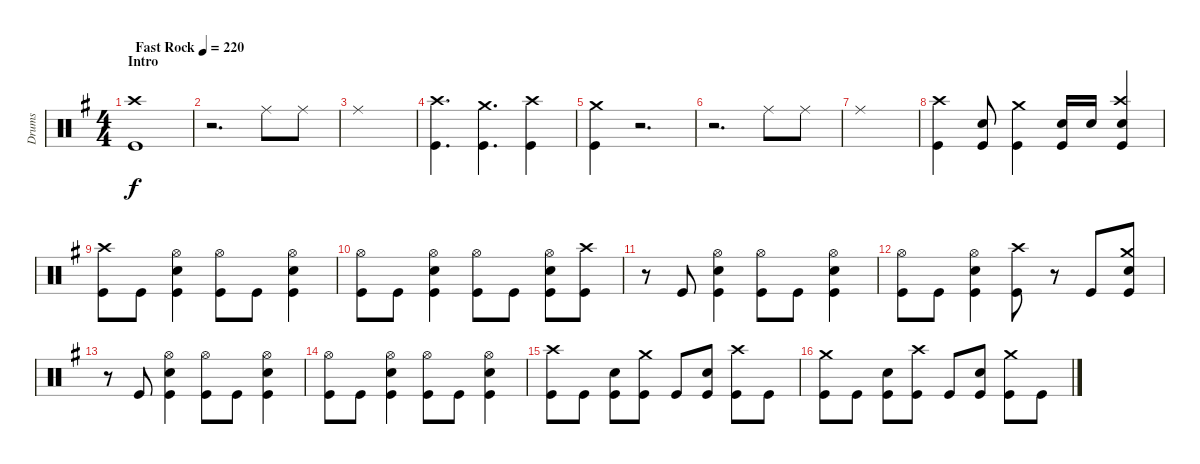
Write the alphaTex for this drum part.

\track ("Drums" "Drums") {instrument percussion}
\staff {score}
\articulation defaults
\ts (4 4)
\section ("" "Intro")
\tempo (220 "Fast Rock")
\clef neutral
\ks eminor
("Kick (hit)" "Crash high (hit)").1{dy f} |
r.2{d} "Ride (middle)".8 "Ride (middle)".8 |
"Ride (middle)".1 |
("Kick (hit)" "Crash high (hit)").4{d} ("Kick (hit)" "Crash medium (hit)").4{d} ("Kick (hit)" "Crash high (hit)").4 |
("Kick (hit)" "Crash medium (hit)").4 r.2{d} |
r.2{d} "Ride (middle)".8 "Ride (middle)".8 |
"Ride (middle)".1 |
("Crash high (hit)" "Kick (hit)").4 ("Kick (hit)" "Snare (hit) 2").8 ("Crash medium (hit)" "Kick (hit)").4 ("Kick (hit)" "Snare (hit) 2").16 "Snare (hit) 2".16 ("Crash high (hit)" "Snare (hit) 2" "Kick (hit)").4 |
("Kick (hit)" "Crash high (hit)").8 "Kick (hit)".8 ("Kick (hit)" "Snare (hit) 2" "Hi-Hat (open)").4 ("Kick (hit)" "Hi-Hat (open)").8 "Kick (hit)".8 ("Kick (hit)" "Snare (hit) 2" "Hi-Hat (open)").4 |
("Kick (hit)" "Hi-Hat (open)").8 "Kick (hit)".8 ("Kick (hit)" "Snare (hit) 2" "Hi-Hat (open)").4 ("Kick (hit)" "Hi-Hat (open)").8 "Kick (hit)".8 ("Kick (hit)" "Snare (hit) 2" "Hi-Hat (open)").8 ("Crash high (hit)" "Kick (hit)").8 |
r.8 "Kick (hit)".8 ("Kick (hit)" "Hi-Hat (open)" "Snare (hit) 2").4 ("Kick (hit)" "Hi-Hat (open)").8 "Kick (hit)".8 ("Kick (hit)" "Hi-Hat (open)" "Snare (hit) 2").4 |
("Kick (hit)" "Hi-Hat (open)").8 "Kick (hit)".8 ("Kick (hit)" "Snare (hit) 2" "Hi-Hat (open)").4 ("Kick (hit)" "Crash high (hit)").8 r.8 "Kick (hit)".8 ("Kick (hit)" "Crash medium (hit)" "Snare (hit) 2").8 |
r.8 "Kick (hit)".8 ("Kick (hit)" "Hi-Hat (open)" "Snare (hit) 2").4 ("Kick (hit)" "Hi-Hat (open)").8 "Kick (hit)".8 ("Kick (hit)" "Hi-Hat (open)" "Snare (hit) 2").4 |
("Kick (hit)" "Hi-Hat (open)").8 "Kick (hit)".8 ("Kick (hit)" "Snare (hit) 2" "Hi-Hat (open)").4 ("Kick (hit)" "Hi-Hat (open)").8 "Kick (hit)".8 ("Kick (hit)" "Snare (hit) 2" "Hi-Hat (open)").4 |
("Crash high (hit)" "Kick (hit)").8 "Kick (hit)".8 ("Kick (hit)" "Snare (hit) 2").8 ("Crash medium (hit)" "Kick (hit)").8 "Kick (hit)".8 ("Kick (hit)" "Snare (hit) 2").8 ("Crash high (hit)" "Kick (hit)").8 "Kick (hit)".8 |
("Crash medium (hit)" "Kick (hit)").8 "Kick (hit)".8 ("Kick (hit)" "Snare (hit) 2").8 ("Crash high (hit)" "Kick (hit)").8 "Kick (hit)".8 ("Kick (hit)" "Snare (hit) 2").8 ("Crash medium (hit)" "Kick (hit)").8 "Kick (hit)".8
